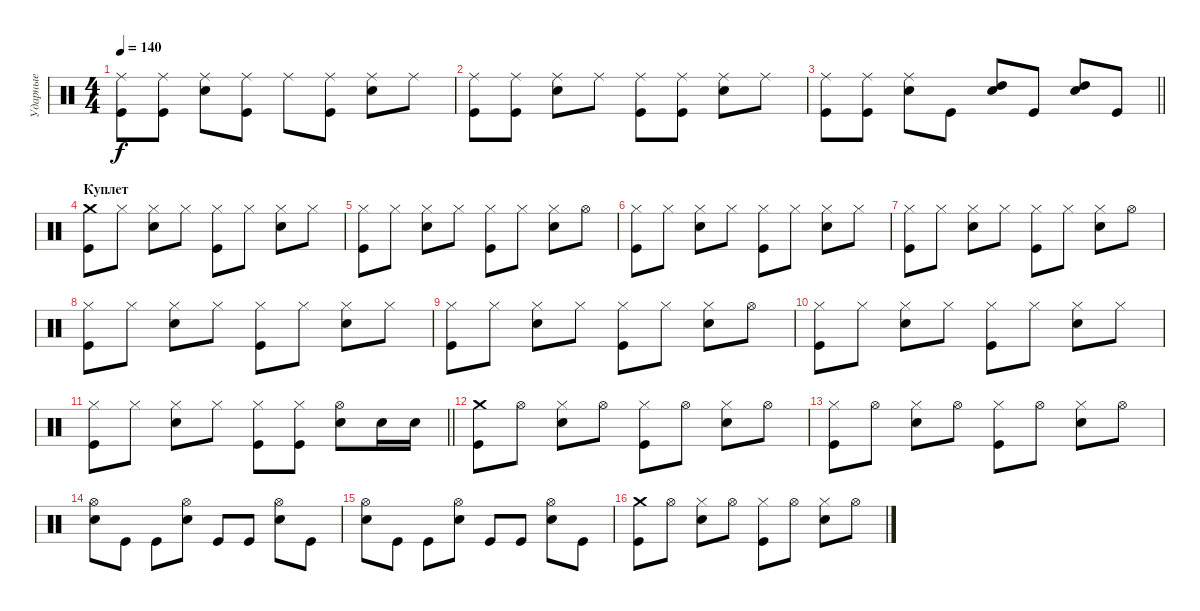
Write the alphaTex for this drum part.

\track ("Ударные" "Ударные") {instrument percussion}
\staff {score}
\articulation defaults
\ts (4 4)
\tempo 140
\clef neutral
\ks c
("Ride (middle)" "Kick (hit)").8{dy f} ("Ride (middle)" "Kick (hit)").8 ("Ride (middle)" "Electric Snare (hit)").8 ("Ride (middle)" "Kick (hit)").8 "Ride (middle)".8 ("Ride (middle)" "Kick (hit)").8 ("Ride (middle)" "Electric Snare (hit)").8 "Ride (middle)".8 |
("Ride (middle)" "Kick (hit)").8 ("Ride (middle)" "Kick (hit)").8 ("Ride (middle)" "Electric Snare (hit)").8 "Ride (middle)".8 ("Ride (middle)" "Kick (hit)").8 ("Ride (middle)" "Kick (hit)").8 ("Ride (middle)" "Electric Snare (hit)").8 "Ride (middle)".8 |
\barLineRight lightlight
("Ride (middle)" "Kick (hit)").8 ("Ride (middle)" "Kick (hit)").8 ("Ride (middle)" "Electric Snare (hit)").8 "Kick (hit)".8 ("High Tom (hit)" "Electric Snare (hit)").8 "Kick (hit)".8 ("High Tom (hit)" "Electric Snare (hit)").8 "Kick (hit)".8 |
\section ("" "Куплет")
("Crash medium (hit)" "Kick (hit)").8 "Hi-Hat (closed)".8 ("Hi-Hat (closed)" "Electric Snare (hit)").8 "Hi-Hat (closed)".8 ("Hi-Hat (closed)" "Kick (hit)").8 "Hi-Hat (closed)".8 ("Hi-Hat (closed)" "Electric Snare (hit)").8 "Hi-Hat (closed)".8 |
("Hi-Hat (closed)" "Kick (hit)").8 "Hi-Hat (closed)".8 ("Hi-Hat (closed)" "Electric Snare (hit)").8 "Hi-Hat (closed)".8 ("Hi-Hat (closed)" "Kick (hit)").8 "Hi-Hat (closed)".8 ("Hi-Hat (closed)" "Electric Snare (hit)").8 "Hi-Hat (open)".8 |
("Hi-Hat (closed)" "Kick (hit)").8 "Hi-Hat (closed)".8 ("Hi-Hat (closed)" "Electric Snare (hit)").8 "Hi-Hat (closed)".8 ("Hi-Hat (closed)" "Kick (hit)").8 "Hi-Hat (closed)".8 ("Hi-Hat (closed)" "Electric Snare (hit)").8 "Hi-Hat (closed)".8 |
("Hi-Hat (closed)" "Kick (hit)").8 "Hi-Hat (closed)".8 ("Hi-Hat (closed)" "Electric Snare (hit)").8 "Hi-Hat (closed)".8 ("Hi-Hat (closed)" "Kick (hit)").8 "Hi-Hat (closed)".8 ("Hi-Hat (closed)" "Electric Snare (hit)").8 "Hi-Hat (open)".8 |
("Hi-Hat (closed)" "Kick (hit)").8 "Hi-Hat (closed)".8 ("Hi-Hat (closed)" "Electric Snare (hit)").8 "Hi-Hat (closed)".8 ("Hi-Hat (closed)" "Kick (hit)").8 "Hi-Hat (closed)".8 ("Hi-Hat (closed)" "Electric Snare (hit)").8 "Hi-Hat (closed)".8 |
("Hi-Hat (closed)" "Kick (hit)").8 "Hi-Hat (closed)".8 ("Hi-Hat (closed)" "Electric Snare (hit)").8 "Hi-Hat (closed)".8 ("Hi-Hat (closed)" "Kick (hit)").8 "Hi-Hat (closed)".8 ("Hi-Hat (closed)" "Electric Snare (hit)").8 "Hi-Hat (open)".8 |
("Hi-Hat (closed)" "Kick (hit)").8 "Hi-Hat (closed)".8 ("Hi-Hat (closed)" "Electric Snare (hit)").8 "Hi-Hat (closed)".8 ("Hi-Hat (closed)" "Kick (hit)").8 "Hi-Hat (closed)".8 ("Hi-Hat (closed)" "Electric Snare (hit)").8 "Hi-Hat (closed)".8 |
\barLineRight lightlight
("Hi-Hat (closed)" "Kick (hit)").8 "Hi-Hat (closed)".8 ("Hi-Hat (closed)" "Electric Snare (hit)").8 "Hi-Hat (closed)".8 ("Hi-Hat (closed)" "Kick (hit)").8 ("Hi-Hat (closed)" "Kick (hit)").8 ("Hi-Hat (open)" "Electric Snare (hit)").8 "Electric Snare (hit)".16 "Electric Snare (hit)".16 |
\section ("" " ")
("Crash medium (hit)" "Kick (hit)").8 "Hi-Hat (open)".8 ("Hi-Hat (closed)" "Electric Snare (hit)").8 "Hi-Hat (open)".8 ("Hi-Hat (closed)" "Kick (hit)").8 "Hi-Hat (open)".8 ("Hi-Hat (closed)" "Electric Snare (hit)").8 "Hi-Hat (open)".8 |
("Hi-Hat (closed)" "Kick (hit)").8 "Hi-Hat (open)".8 ("Hi-Hat (closed)" "Electric Snare (hit)").8 "Hi-Hat (open)".8 ("Hi-Hat (closed)" "Kick (hit)").8 "Hi-Hat (open)".8 ("Hi-Hat (closed)" "Electric Snare (hit)").8 "Hi-Hat (open)".8 |
("Hi-Hat (open)" "Electric Snare (hit)").8 "Kick (hit)".8 "Kick (hit)".8 ("Hi-Hat (open)" "Electric Snare (hit)").8 "Kick (hit)".8 "Kick (hit)".8 ("Hi-Hat (open)" "Electric Snare (hit)").8 "Kick (hit)".8 |
("Hi-Hat (open)" "Electric Snare (hit)").8 "Kick (hit)".8 "Kick (hit)".8 ("Hi-Hat (open)" "Electric Snare (hit)").8 "Kick (hit)".8 "Kick (hit)".8 ("Hi-Hat (open)" "Electric Snare (hit)").8 "Kick (hit)".8 |
("Crash medium (hit)" "Kick (hit)").8 "Hi-Hat (open)".8 ("Hi-Hat (closed)" "Electric Snare (hit)").8 "Hi-Hat (open)".8 ("Hi-Hat (closed)" "Kick (hit)").8 "Hi-Hat (open)".8 ("Hi-Hat (closed)" "Electric Snare (hit)").8 "Hi-Hat (open)".8
